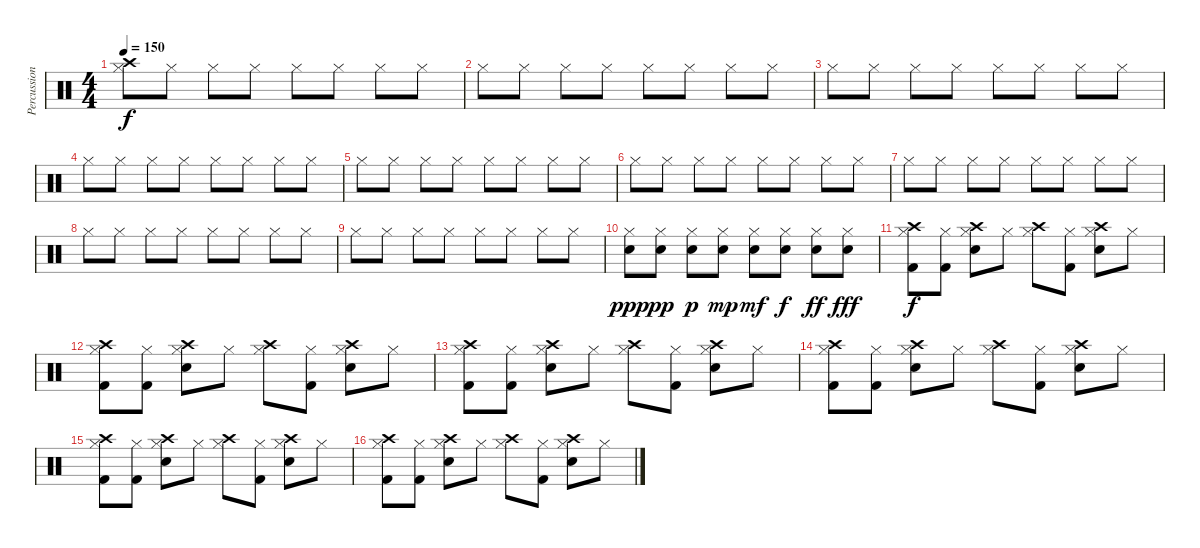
\track ("Percussion" "Percussion") {instrument percussion}
\staff {score}
\articulation defaults
\ts (4 4)
\tempo 150
\clef neutral
\ks c
("Hi-Hat (closed)" "Crash high (hit)").8{dy f} "Hi-Hat (closed)".8 "Hi-Hat (closed)".8 "Hi-Hat (closed)".8 "Hi-Hat (closed)".8 "Hi-Hat (closed)".8 "Hi-Hat (closed)".8 "Hi-Hat (closed)".8 |
"Hi-Hat (closed)".8 "Hi-Hat (closed)".8 "Hi-Hat (closed)".8 "Hi-Hat (closed)".8 "Hi-Hat (closed)".8 "Hi-Hat (closed)".8 "Hi-Hat (closed)".8 "Hi-Hat (closed)".8 |
"Hi-Hat (closed)".8 "Hi-Hat (closed)".8 "Hi-Hat (closed)".8 "Hi-Hat (closed)".8 "Hi-Hat (closed)".8 "Hi-Hat (closed)".8 "Hi-Hat (closed)".8 "Hi-Hat (closed)".8 |
"Hi-Hat (closed)".8 "Hi-Hat (closed)".8 "Hi-Hat (closed)".8 "Hi-Hat (closed)".8 "Hi-Hat (closed)".8 "Hi-Hat (closed)".8 "Hi-Hat (closed)".8 "Hi-Hat (closed)".8 |
"Hi-Hat (closed)".8 "Hi-Hat (closed)".8 "Hi-Hat (closed)".8 "Hi-Hat (closed)".8 "Hi-Hat (closed)".8 "Hi-Hat (closed)".8 "Hi-Hat (closed)".8 "Hi-Hat (closed)".8 |
"Hi-Hat (closed)".8 "Hi-Hat (closed)".8 "Hi-Hat (closed)".8 "Hi-Hat (closed)".8 "Hi-Hat (closed)".8 "Hi-Hat (closed)".8 "Hi-Hat (closed)".8 "Hi-Hat (closed)".8 |
"Hi-Hat (closed)".8 "Hi-Hat (closed)".8 "Hi-Hat (closed)".8 "Hi-Hat (closed)".8 "Hi-Hat (closed)".8 "Hi-Hat (closed)".8 "Hi-Hat (closed)".8 "Hi-Hat (closed)".8 |
"Hi-Hat (closed)".8 "Hi-Hat (closed)".8 "Hi-Hat (closed)".8 "Hi-Hat (closed)".8 "Hi-Hat (closed)".8 "Hi-Hat (closed)".8 "Hi-Hat (closed)".8 "Hi-Hat (closed)".8 |
"Hi-Hat (closed)".8 "Hi-Hat (closed)".8 "Hi-Hat (closed)".8 "Hi-Hat (closed)".8 "Hi-Hat (closed)".8 "Hi-Hat (closed)".8 "Hi-Hat (closed)".8 "Hi-Hat (closed)".8 |
("Hi-Hat (closed)" "Electric Snare (hit)").8{dy ppp} ("Hi-Hat (closed)" "Electric Snare (hit)").8{dy pp} ("Hi-Hat (closed)" "Electric Snare (hit)").8{dy p} ("Hi-Hat (closed)" "Electric Snare (hit)").8{dy mp} ("Hi-Hat (closed)" "Electric Snare (hit)").8{dy mf} ("Hi-Hat (closed)" "Electric Snare (hit)").8{dy f} ("Hi-Hat (closed)" "Electric Snare (hit)").8{dy ff} ("Hi-Hat (closed)" "Electric Snare (hit)").8{dy fff} |
("Hi-Hat (closed)" "Kick (hit) 2" "Crash high (hit)").8{dy f} ("Hi-Hat (closed)" "Kick (hit) 2").8 ("Hi-Hat (closed)" "Electric Snare (hit)" "Crash high (hit)").8 "Hi-Hat (closed)".8 ("Hi-Hat (closed)" "Crash high (hit)").8 ("Hi-Hat (closed)" "Kick (hit) 2").8 ("Hi-Hat (closed)" "Electric Snare (hit)" "Crash high (hit)").8 "Hi-Hat (closed)".8 |
("Hi-Hat (closed)" "Kick (hit) 2" "Crash high (hit)").8 ("Hi-Hat (closed)" "Kick (hit) 2").8 ("Hi-Hat (closed)" "Electric Snare (hit)" "Crash high (hit)").8 "Hi-Hat (closed)".8 ("Hi-Hat (closed)" "Crash high (hit)").8 ("Hi-Hat (closed)" "Kick (hit) 2").8 ("Hi-Hat (closed)" "Electric Snare (hit)" "Crash high (hit)").8 "Hi-Hat (closed)".8 |
("Hi-Hat (closed)" "Kick (hit) 2" "Crash high (hit)").8 ("Hi-Hat (closed)" "Kick (hit) 2").8 ("Hi-Hat (closed)" "Electric Snare (hit)" "Crash high (hit)").8 "Hi-Hat (closed)".8 ("Hi-Hat (closed)" "Crash high (hit)").8 ("Hi-Hat (closed)" "Kick (hit) 2").8 ("Hi-Hat (closed)" "Electric Snare (hit)" "Crash high (hit)").8 "Hi-Hat (closed)".8 |
("Hi-Hat (closed)" "Kick (hit) 2" "Crash high (hit)").8 ("Hi-Hat (closed)" "Kick (hit) 2").8 ("Hi-Hat (closed)" "Electric Snare (hit)" "Crash high (hit)").8 "Hi-Hat (closed)".8 ("Hi-Hat (closed)" "Crash high (hit)").8 ("Hi-Hat (closed)" "Kick (hit) 2").8 ("Hi-Hat (closed)" "Electric Snare (hit)" "Crash high (hit)").8 "Hi-Hat (closed)".8 |
("Hi-Hat (closed)" "Kick (hit) 2" "Crash high (hit)").8 ("Hi-Hat (closed)" "Kick (hit) 2").8 ("Hi-Hat (closed)" "Electric Snare (hit)" "Crash high (hit)").8 "Hi-Hat (closed)".8 ("Hi-Hat (closed)" "Crash high (hit)").8 ("Hi-Hat (closed)" "Kick (hit) 2").8 ("Hi-Hat (closed)" "Electric Snare (hit)" "Crash high (hit)").8 "Hi-Hat (closed)".8 |
("Hi-Hat (closed)" "Kick (hit) 2" "Crash high (hit)").8 ("Hi-Hat (closed)" "Kick (hit) 2").8 ("Hi-Hat (closed)" "Electric Snare (hit)" "Crash high (hit)").8 "Hi-Hat (closed)".8 ("Hi-Hat (closed)" "Crash high (hit)").8 ("Hi-Hat (closed)" "Kick (hit) 2").8 ("Hi-Hat (closed)" "Electric Snare (hit)" "Crash high (hit)").8 "Hi-Hat (closed)".8
